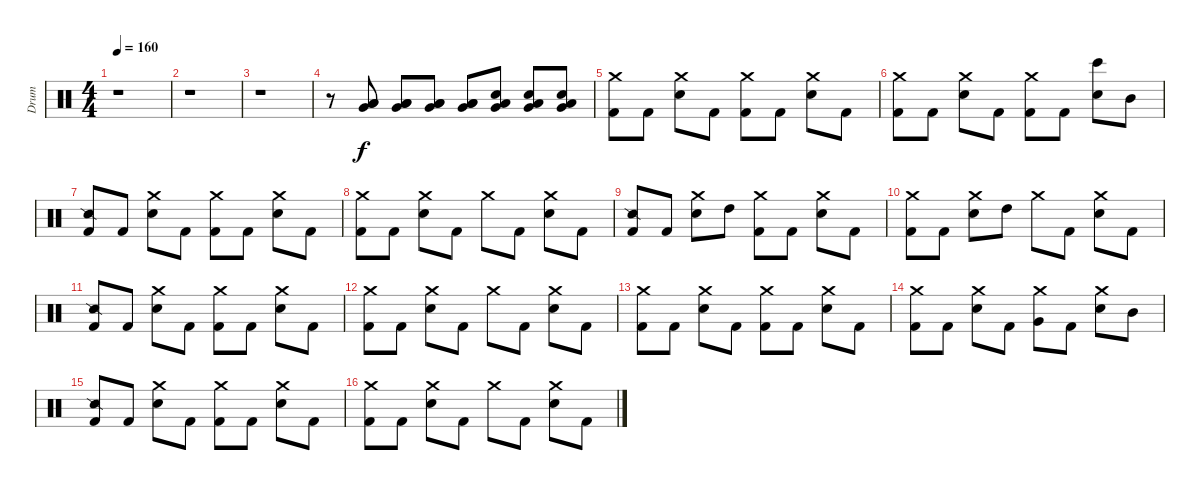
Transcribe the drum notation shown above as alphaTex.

\track ("Drum" "Drum") {instrument percussion}
\staff {score}
\articulation defaults
\ts (4 4)
\tempo 160
\clef neutral
\ks c
r.1{dy f} |
r.1 |
r.1 |
r.8 ("Low Tom (hit)" "Very Low Tom (hit)" "Low Floor Tom (hit)").8 ("Very Low Tom (hit)" "Low Tom (hit)" "Low Floor Tom (hit)").8 ("Very Low Tom (hit)" "Low Tom (hit)" "Low Floor Tom (hit)").8 ("Very Low Tom (hit)" "Low Tom (hit)" "Low Floor Tom (hit)").8 ("Very Low Tom (hit)" "Electric Snare (hit)" "Low Floor Tom (hit)").8 ("Very Low Tom (hit)" "Electric Snare (hit)" "Low Floor Tom (hit)").8 ("Low Floor Tom (hit)" "Electric Snare (hit)" "Very Low Tom (hit)").8 |
("Crash medium (hit)" "Kick (hit) 2").8 "Kick (hit) 2".8 ("Electric Snare (hit)" "Crash medium (hit)").8 "Kick (hit) 2".8 ("Crash medium (hit)" "Kick (hit) 2").8 "Kick (hit) 2".8 ("Crash medium (hit)" "Electric Snare (hit)").8 "Kick (hit) 2".8 |
("Crash medium (hit)" "Kick (hit) 2").8 "Kick (hit) 2".8 ("Electric Snare (hit)" "Crash medium (hit)").8 "Kick (hit) 2".8 ("Crash medium (hit)" "Kick (hit) 2").8 "Kick (hit) 2".8 ("Electric Snare (hit)" "Bongo High (hit)").8 "Mid Tom (hit)".8 |
("Snare (side stick) 2" "Kick (hit) 2").8 "Kick (hit) 2".8 ("Crash medium (hit)" "Electric Snare (hit)").8 "Kick (hit) 2".8 ("Crash medium (hit)" "Kick (hit) 2").8 "Kick (hit) 2".8 ("Electric Snare (hit)" "Crash medium (hit)").8 "Kick (hit) 2".8 |
("Kick (hit) 2" "Crash medium (hit)").8 "Kick (hit) 2".8 ("Electric Snare (hit)" "Crash medium (hit)").8 "Kick (hit) 2".8 "Crash medium (hit)".8 "Kick (hit) 2".8 ("Electric Snare (hit)" "Crash medium (hit)").8 "Kick (hit) 2".8 |
("Snare (side stick) 2" "Kick (hit) 2").8 "Kick (hit) 2".8 ("Electric Snare (hit)" "Crash medium (hit)").8 "High Tom (hit)".8 ("Crash medium (hit)" "Kick (hit) 2").8 "Kick (hit) 2".8 ("Crash medium (hit)" "Electric Snare (hit)").8 "Kick (hit) 2".8 |
("Crash medium (hit)" "Kick (hit) 2").8 "Kick (hit) 2".8 ("Electric Snare (hit)" "Crash medium (hit)").8 "High Tom (hit)".8 "Crash medium (hit)".8 "Kick (hit) 2".8 ("Electric Snare (hit)" "Crash medium (hit)").8 "Kick (hit) 2".8 |
("Kick (hit) 2" "Snare (side stick) 2").8 "Kick (hit) 2".8 ("Crash medium (hit)" "Electric Snare (hit)").8 "Kick (hit) 2".8 ("Crash medium (hit)" "Kick (hit) 2").8 "Kick (hit) 2".8 ("Electric Snare (hit)" "Crash medium (hit)").8 "Kick (hit) 2".8 |
("Crash medium (hit)" "Kick (hit) 2").8 "Kick (hit) 2".8 ("Electric Snare (hit)" "Crash medium (hit)").8 "Kick (hit) 2".8 "Crash medium (hit)".8 "Kick (hit) 2".8 ("Electric Snare (hit)" "Crash medium (hit)").8 "Kick (hit) 2".8 |
("Kick (hit) 2" "Crash medium (hit)").8 "Kick (hit) 2".8 ("Electric Snare (hit)" "Crash medium (hit)").8 "Kick (hit) 2".8 ("Crash medium (hit)" "Kick (hit) 2").8 "Kick (hit) 2".8 ("Crash medium (hit)" "Electric Snare (hit)").8 "Kick (hit) 2".8 |
("Crash medium (hit)" "Kick (hit) 2").8 "Kick (hit) 2".8 ("Crash medium (hit)" "Electric Snare (hit)").8 "Kick (hit) 2".8 ("Very Low Tom (hit)" "Crash medium (hit)").8 "Kick (hit) 2".8 ("Electric Snare (hit)" "Crash medium (hit)").8 "Mid Tom (hit)".8 |
("Kick (hit) 2" "Snare (side stick) 2").8 "Kick (hit) 2".8 ("Crash medium (hit)" "Electric Snare (hit)").8 "Kick (hit) 2".8 ("Crash medium (hit)" "Kick (hit) 2").8 "Kick (hit) 2".8 ("Electric Snare (hit)" "Crash medium (hit)").8 "Kick (hit) 2".8 |
("Kick (hit) 2" "Crash medium (hit)").8 "Kick (hit) 2".8 ("Crash medium (hit)" "Electric Snare (hit)").8 "Kick (hit) 2".8 "Crash medium (hit)".8 "Kick (hit) 2".8 ("Crash medium (hit)" "Electric Snare (hit)").8 "Kick (hit) 2".8
